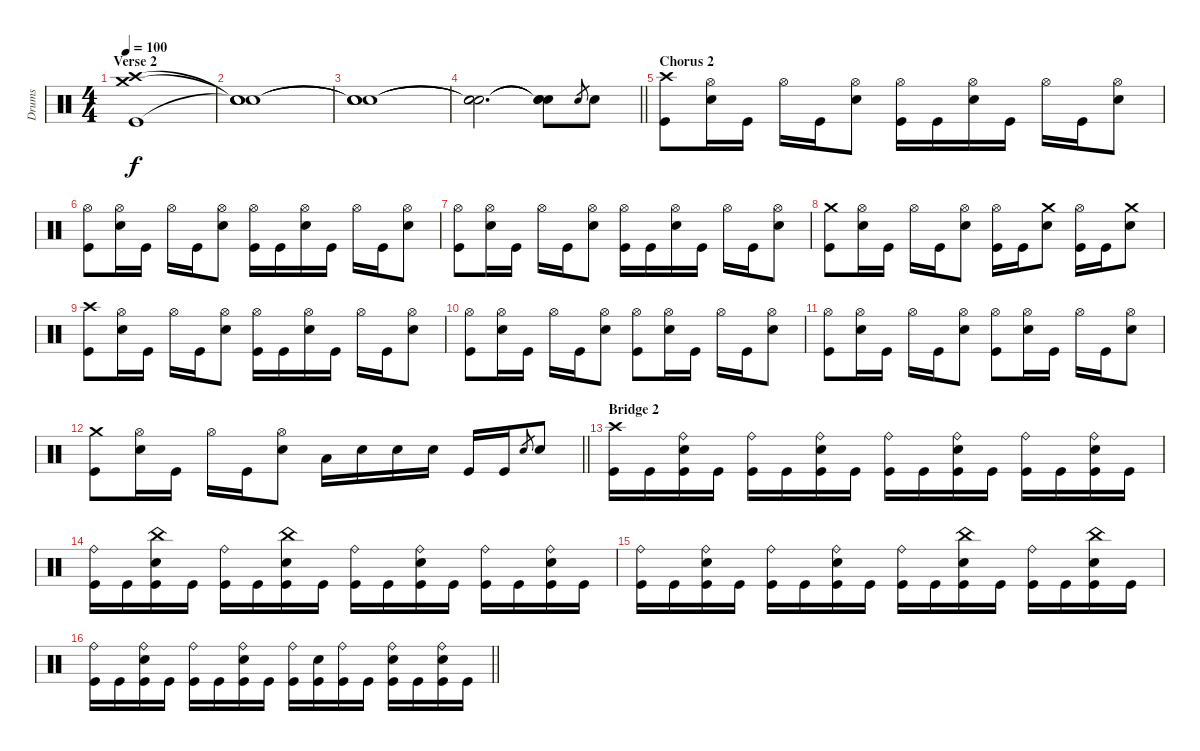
\track ("Drums" "Drums") {instrument percussion}
\staff {score}
\articulation defaults
\ts (4 4)
\section ("" "Verse 2")
\tempo 100
\clef neutral
\ks c
("Kick (hit)" "Crash high (hit)" "Crash medium (hit)").1{dy f} |
("Snare (hit)"{t} "Snare (hit)"{t} "Snare (hit)"{t}).1 |
("Snare (hit)"{t} "Snare (hit)"{t} "Snare (hit)"{t}).1 |
\barLineRight lightlight
("Snare (hit)"{t} "Snare (hit)"{t} "Snare (hit)"{t}).2{d} ("Snare (hit)"{t} "Snare (hit)"{t} "Snare (hit)"{t}).8 "Electric Snare (hit)".8{gr} "Electric Snare (hit)".8 |
\section ("" "Chorus 2")
("Kick (hit)" "Crash high (hit)").8 ("Electric Snare (hit)" "Hi-Hat (open)").16 "Kick (hit)".16 "Hi-Hat (open)".16 "Kick (hit)".16 ("Electric Snare (hit)" "Hi-Hat (open)").8 ("Kick (hit)" "Hi-Hat (open)").16 "Kick (hit)".16 ("Electric Snare (hit)" "Hi-Hat (open)").16 "Kick (hit)".16 "Hi-Hat (open)".16 "Kick (hit)".16 ("Electric Snare (hit)" "Hi-Hat (open)").8 |
("Kick (hit)" "Hi-Hat (open)").8 ("Electric Snare (hit)" "Hi-Hat (open)").16 "Kick (hit)".16 "Hi-Hat (open)".16 "Kick (hit)".16 ("Electric Snare (hit)" "Hi-Hat (open)").8 ("Kick (hit)" "Hi-Hat (open)").16 "Kick (hit)".16 ("Electric Snare (hit)" "Hi-Hat (open)").16 "Kick (hit)".16 "Hi-Hat (open)".16 "Kick (hit)".16 ("Electric Snare (hit)" "Hi-Hat (open)").8 |
("Kick (hit)" "Hi-Hat (open)").8 ("Electric Snare (hit)" "Hi-Hat (open)").16 "Kick (hit)".16 "Hi-Hat (open)".16 "Kick (hit)".16 ("Electric Snare (hit)" "Hi-Hat (open)").8 ("Kick (hit)" "Hi-Hat (open)").16 "Kick (hit)".16 ("Electric Snare (hit)" "Hi-Hat (open)").16 "Kick (hit)".16 "Hi-Hat (open)".16 "Kick (hit)".16 ("Electric Snare (hit)" "Hi-Hat (open)").8 |
("Kick (hit)" "Crash medium (hit)").8 ("Electric Snare (hit)" "Hi-Hat (open)").16 "Kick (hit)".16 "Hi-Hat (open)".16 "Kick (hit)".16 ("Electric Snare (hit)" "Hi-Hat (open)").8 ("Kick (hit)" "Hi-Hat (open)").16 "Kick (hit)".16 ("Electric Snare (hit)" "Crash medium (hit)").8 ("Kick (hit)" "Hi-Hat (open)").16 "Kick (hit)".16 ("Electric Snare (hit)" "Crash medium (hit)").8 |
("Kick (hit)" "Crash high (hit)").8 ("Electric Snare (hit)" "Hi-Hat (open)").16 "Kick (hit)".16 "Hi-Hat (open)".16 "Kick (hit)".16 ("Electric Snare (hit)" "Hi-Hat (open)").8 ("Kick (hit)" "Hi-Hat (open)").16 "Kick (hit)".16 ("Electric Snare (hit)" "Hi-Hat (open)").16 "Kick (hit)".16 "Hi-Hat (open)".16 "Kick (hit)".16 ("Electric Snare (hit)" "Hi-Hat (open)").8 |
("Kick (hit)" "Hi-Hat (open)").8 ("Electric Snare (hit)" "Hi-Hat (open)").16 "Kick (hit)".16 "Hi-Hat (open)".16 "Kick (hit)".16 ("Electric Snare (hit)" "Hi-Hat (open)").8 ("Kick (hit)" "Hi-Hat (open)").8 ("Electric Snare (hit)" "Hi-Hat (open)").16 "Kick (hit)".16 "Hi-Hat (open)".16 "Kick (hit)".16 ("Electric Snare (hit)" "Hi-Hat (open)").8 |
("Kick (hit)" "Hi-Hat (open)").8 ("Electric Snare (hit)" "Hi-Hat (open)").16 "Kick (hit)".16 "Hi-Hat (open)".16 "Kick (hit)".16 ("Electric Snare (hit)" "Hi-Hat (open)").8 ("Kick (hit)" "Hi-Hat (open)").8 ("Electric Snare (hit)" "Hi-Hat (open)").16 "Kick (hit)".16 "Hi-Hat (open)".16 "Kick (hit)".16 ("Electric Snare (hit)" "Hi-Hat (open)").8 |
\barLineRight lightlight
("Kick (hit)" "Crash medium (hit)").8 ("Electric Snare (hit)" "Hi-Hat (open)").16 "Kick (hit)".16 "Hi-Hat (open)".16 "Kick (hit)".16 ("Electric Snare (hit)" "Hi-Hat (open)").8 "Low Tom (hit)".16 "Electric Snare (hit)".16 "Electric Snare (hit)".16 "Electric Snare (hit)".16 "Kick (hit)".16 "Kick (hit)".16 "Electric Snare (hit)".8{gr} "Electric Snare (hit)".8 |
\section ("" "Bridge 2")
("Kick (hit)" "Crash high (hit)").16 "Kick (hit)".16 ("Kick (hit)" "Electric Snare (hit)" "Ride (bell)").16 "Kick (hit)".16 ("Kick (hit)" "Ride (bell)").16 "Kick (hit)".16 ("Kick (hit)" "Electric Snare (hit)" "Ride (bell)").16 "Kick (hit)".16 ("Kick (hit)" "Ride (bell)").16 "Kick (hit)".16 ("Kick (hit)" "Electric Snare (hit)" "Ride (bell)").16 "Kick (hit)".16 ("Kick (hit)" "Ride (bell)").16 "Kick (hit)".16 ("Kick (hit)" "Electric Snare (hit)" "Ride (bell)").16 "Kick (hit)".16 |
("Kick (hit)" "Ride (bell)").16 "Kick (hit)".16 ("Kick (hit)" "Electric Snare (hit)" "China (hit)").16 "Kick (hit)".16 ("Kick (hit)" "Ride (bell)").16 "Kick (hit)".16 ("Kick (hit)" "Electric Snare (hit)" "China (hit)").16 "Kick (hit)".16 ("Kick (hit)" "Ride (bell)").16 "Kick (hit)".16 ("Kick (hit)" "Electric Snare (hit)" "Ride (bell)").16 "Kick (hit)".16 ("Kick (hit)" "Ride (bell)").16 "Kick (hit)".16 ("Kick (hit)" "Electric Snare (hit)" "Ride (bell)").16 "Kick (hit)".16 |
("Kick (hit)" "Ride (bell)").16 "Kick (hit)".16 ("Kick (hit)" "Electric Snare (hit)" "Ride (bell)").16 "Kick (hit)".16 ("Kick (hit)" "Ride (bell)").16 "Kick (hit)".16 ("Kick (hit)" "Electric Snare (hit)" "Ride (bell)").16 "Kick (hit)".16 ("Kick (hit)" "Ride (bell)").16 "Kick (hit)".16 ("Kick (hit)" "Electric Snare (hit)" "China (hit)").16 "Kick (hit)".16 ("Kick (hit)" "Ride (bell)").16 "Kick (hit)".16 ("Kick (hit)" "Electric Snare (hit)" "China (hit)").16 "Kick (hit)".16 |
\barLineRight lightlight
("Kick (hit)" "Ride (bell)").16 "Kick (hit)".16 ("Kick (hit)" "Electric Snare (hit)" "Ride (bell)").16 "Kick (hit)".16 ("Kick (hit)" "Ride (bell)").16 "Kick (hit)".16 ("Kick (hit)" "Electric Snare (hit)" "Ride (bell)").16 "Kick (hit)".16 ("Kick (hit)" "Ride (bell)").16 ("Kick (hit)" "Electric Snare (hit)").16 ("Kick (hit)" "Ride (bell)").16 "Kick (hit)".16 ("Kick (hit)" "Electric Snare (hit)" "Ride (bell)").16 "Kick (hit)".16 ("Kick (hit)" "Electric Snare (hit)" "Ride (bell)").16 "Kick (hit)".16
